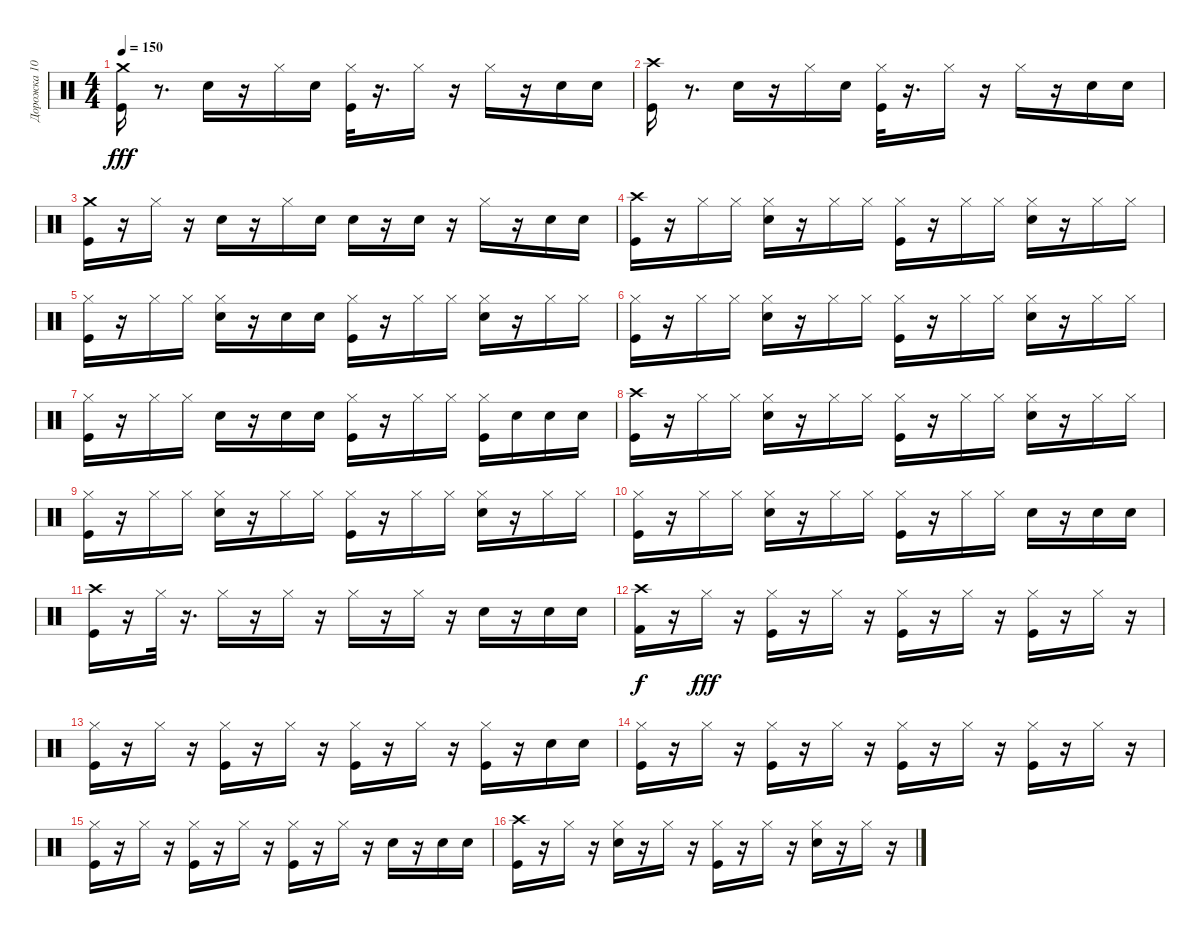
\track ("Дорожка 10" "Дорожка 10") {instrument percussion}
\staff {score}
\articulation defaults
\ts (4 4)
\tempo 150
\clef neutral
\ks c
("Crash medium (hit)" "Kick (hit)").16{dy fff} r.8{d} "Electric Snare (hit)".16 r.16 "Hi-Hat (closed)".16 "Electric Snare (hit)".16 ("Hi-Hat (closed)" "Kick (hit)").32 r.16{d} "Hi-Hat (closed)".16 r.16 "Hi-Hat (closed)".16 r.16 "Electric Snare (hit)".16 "Electric Snare (hit)".16 |
("Crash high (hit)" "Kick (hit)").16 r.8{d} "Electric Snare (hit)".16 r.16 "Hi-Hat (closed)".16 "Electric Snare (hit)".16 ("Hi-Hat (closed)" "Kick (hit)").32 r.16{d} "Hi-Hat (closed)".16 r.16 "Hi-Hat (closed)".16 r.16 "Electric Snare (hit)".16 "Electric Snare (hit)".16 |
("Crash medium (hit)" "Kick (hit)").16 r.16 "Hi-Hat (closed)".16 r.16 "Electric Snare (hit)".16 r.16 "Hi-Hat (closed)".16 "Electric Snare (hit)".16 "Electric Snare (hit)".16 r.16 "Electric Snare (hit)".16 r.16 "Hi-Hat (closed)".16 r.16 "Electric Snare (hit)".16 "Electric Snare (hit)".16 |
("Kick (hit)" "Crash high (hit)").16 r.16 "Hi-Hat (closed)".16 "Hi-Hat (closed)".16 ("Hi-Hat (closed)" "Electric Snare (hit)").16 r.16 "Hi-Hat (closed)".16 "Hi-Hat (closed)".16 ("Hi-Hat (closed)" "Kick (hit)").16 r.16 "Hi-Hat (closed)".16 "Hi-Hat (closed)".16 ("Hi-Hat (closed)" "Electric Snare (hit)").16 r.16 "Hi-Hat (closed)".16 "Hi-Hat (closed)".16 |
("Hi-Hat (closed)" "Kick (hit)").16 r.16 "Hi-Hat (closed)".16 "Hi-Hat (closed)".16 ("Electric Snare (hit)" "Hi-Hat (closed)").16 r.16 "Electric Snare (hit)".16 "Electric Snare (hit)".16 ("Hi-Hat (closed)" "Kick (hit)").16 r.16 "Hi-Hat (closed)".16 "Hi-Hat (closed)".16 ("Hi-Hat (closed)" "Electric Snare (hit)").16 r.16 "Hi-Hat (closed)".16 "Hi-Hat (closed)".16 |
("Hi-Hat (closed)" "Kick (hit)").16 r.16 "Hi-Hat (closed)".16 "Hi-Hat (closed)".16 ("Electric Snare (hit)" "Hi-Hat (closed)").16 r.16 "Hi-Hat (closed)".16 "Hi-Hat (closed)".16 ("Hi-Hat (closed)" "Kick (hit)").16 r.16 "Hi-Hat (closed)".16 "Hi-Hat (closed)".16 ("Hi-Hat (closed)" "Electric Snare (hit)").16 r.16 "Hi-Hat (closed)".16 "Hi-Hat (closed)".16 |
("Kick (hit)" "Hi-Hat (closed)").16 r.16 "Hi-Hat (closed)".16 "Hi-Hat (closed)".16 "Electric Snare (hit)".16 r.16 "Electric Snare (hit)".16 "Electric Snare (hit)".16 ("Hi-Hat (closed)" "Kick (hit)").16 r.16 "Hi-Hat (closed)".16 "Hi-Hat (closed)".16 ("Hi-Hat (closed)" "Kick (hit)").16 "Electric Snare (hit)".16 "Electric Snare (hit)".16 "Electric Snare (hit)".16 |
("Kick (hit)" "Crash high (hit)").16 r.16 "Hi-Hat (closed)".16 "Hi-Hat (closed)".16 ("Electric Snare (hit)" "Hi-Hat (closed)").16 r.16 "Hi-Hat (closed)".16 "Hi-Hat (closed)".16 ("Kick (hit)" "Hi-Hat (closed)").16 r.16 "Hi-Hat (closed)".16 "Hi-Hat (closed)".16 ("Electric Snare (hit)" "Hi-Hat (closed)").16 r.16 "Hi-Hat (closed)".16 "Hi-Hat (closed)".16 |
("Kick (hit)" "Hi-Hat (closed)").16 r.16 "Hi-Hat (closed)".16 "Hi-Hat (closed)".16 ("Hi-Hat (closed)" "Electric Snare (hit)").16 r.16 "Hi-Hat (closed)".16 "Hi-Hat (closed)".16 ("Kick (hit)" "Hi-Hat (closed)").16 r.16 "Hi-Hat (closed)".16 "Hi-Hat (closed)".16 ("Electric Snare (hit)" "Hi-Hat (closed)").16 r.16 "Hi-Hat (closed)".16 "Hi-Hat (closed)".16 |
("Hi-Hat (closed)" "Kick (hit)").16 r.16 "Hi-Hat (closed)".16 "Hi-Hat (closed)".16 ("Electric Snare (hit)" "Hi-Hat (closed)").16 r.16 "Hi-Hat (closed)".16 "Hi-Hat (closed)".16 ("Kick (hit)" "Hi-Hat (closed)").16 r.16 "Hi-Hat (closed)".16 "Hi-Hat (closed)".16 "Electric Snare (hit)".16 r.16 "Electric Snare (hit)".16 "Electric Snare (hit)".16 |
("Crash high (hit)" "Kick (hit)").16 r.16 "Hi-Hat (closed)".32 r.16{d} "Hi-Hat (closed)".16 r.16 "Hi-Hat (closed)".16 r.16 "Hi-Hat (closed)".16 r.16 "Hi-Hat (closed)".16 r.16 "Electric Snare (hit)".16 r.16 "Electric Snare (hit)".16 "Electric Snare (hit)".16 |
("Kick (hit) 2" "Crash high (hit)").16{dy f} r.16 "Hi-Hat (closed)".16{dy fff} r.16 ("Kick (hit)" "Hi-Hat (closed)").16 r.16 "Hi-Hat (closed)".16 r.16 ("Hi-Hat (closed)" "Kick (hit)").16 r.16 "Hi-Hat (closed)".16 r.16 ("Hi-Hat (closed)" "Kick (hit)").16 r.16 "Hi-Hat (closed)".16 r.16 |
("Hi-Hat (closed)" "Kick (hit)").16 r.16 "Hi-Hat (closed)".16 r.16 ("Hi-Hat (closed)" "Kick (hit)").16 r.16 "Hi-Hat (closed)".16 r.16 ("Hi-Hat (closed)" "Kick (hit)").16 r.16 "Hi-Hat (closed)".16 r.16 ("Hi-Hat (closed)" "Kick (hit)").16 r.16 "Electric Snare (hit)".16 "Electric Snare (hit)".16 |
("Kick (hit)" "Hi-Hat (closed)").16 r.16 "Hi-Hat (closed)".16 r.16 ("Hi-Hat (closed)" "Kick (hit)").16 r.16 "Hi-Hat (closed)".16 r.16 ("Kick (hit)" "Hi-Hat (closed)").16 r.16 "Hi-Hat (closed)".16 r.16 ("Hi-Hat (closed)" "Kick (hit)").16 r.16 "Hi-Hat (closed)".16 r.16 |
("Kick (hit)" "Hi-Hat (closed)").16 r.16 "Hi-Hat (closed)".16 r.16 ("Kick (hit)" "Hi-Hat (closed)").16 r.16 "Hi-Hat (closed)".16 r.16 ("Hi-Hat (closed)" "Kick (hit)").16 r.16 "Hi-Hat (closed)".16 r.16 "Electric Snare (hit)".16 r.16 "Electric Snare (hit)".16 "Electric Snare (hit)".16 |
("Kick (hit)" "Crash high (hit)").16 r.16 "Hi-Hat (closed)".16 r.16 ("Electric Snare (hit)" "Hi-Hat (closed)").16 r.16 "Hi-Hat (closed)".16 r.16 ("Hi-Hat (closed)" "Kick (hit)").16 r.16 "Hi-Hat (closed)".16 r.16 ("Electric Snare (hit)" "Hi-Hat (closed)").16 r.16 "Hi-Hat (closed)".16 r.16
